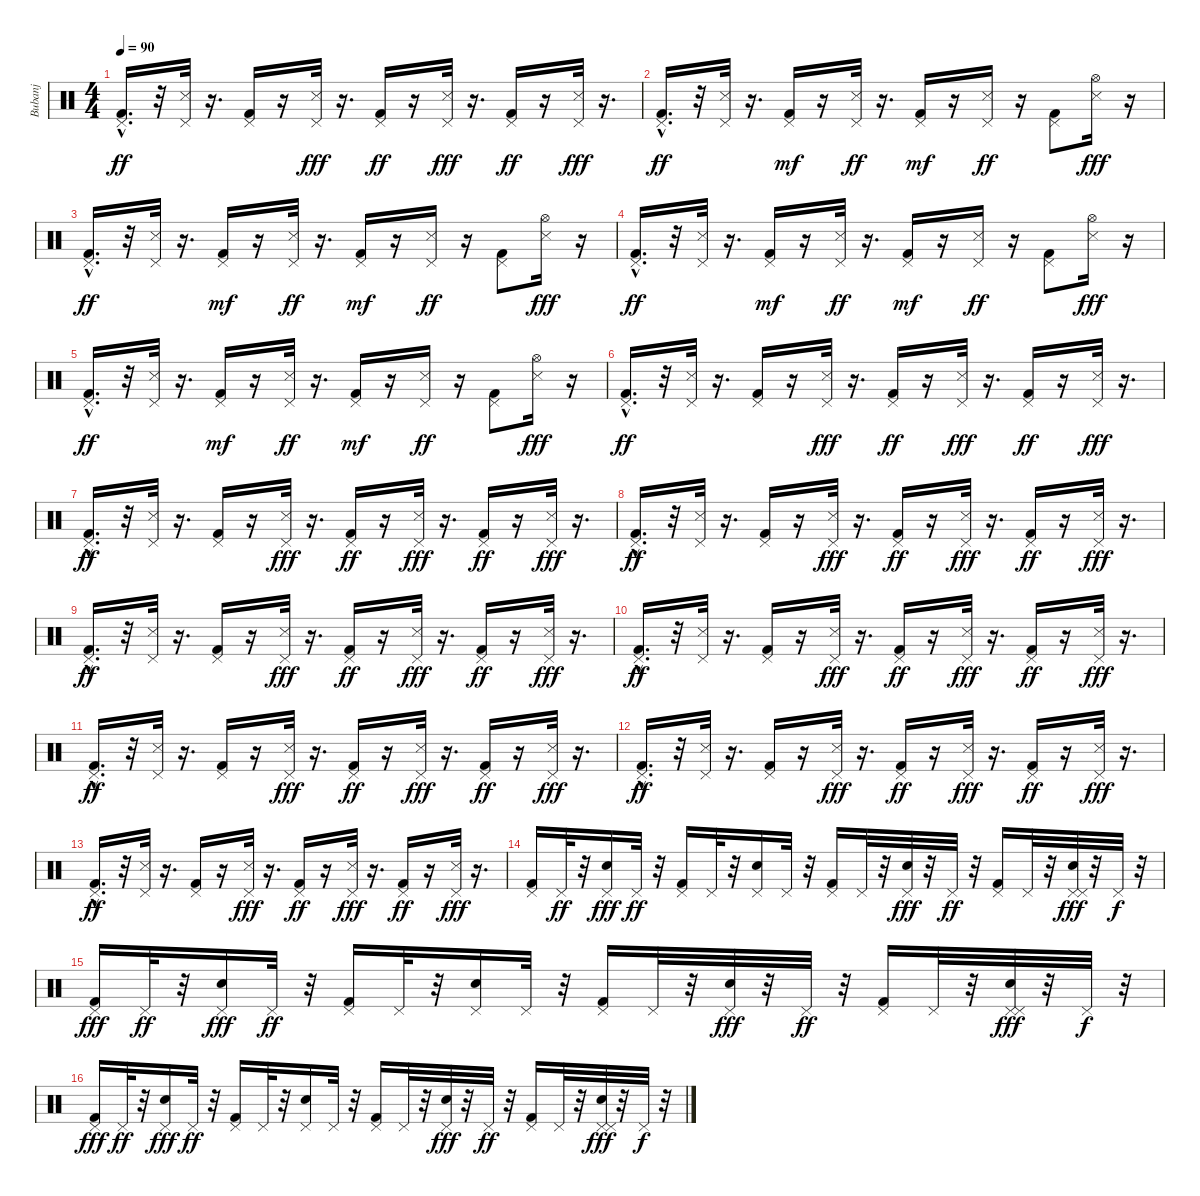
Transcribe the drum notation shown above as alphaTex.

\track ("Bubanj" "Bubanj") {instrument percussion}
\staff {score}
\articulation defaults
\ts (4 4)
\tempo 90
\clef neutral
\ks c
("Kick (hit) 2"{hac} "Pedal Hi-Hat (hit)").16{d dy ff} r.32 ("Pedal Hi-Hat (hit)" "Snare (side stick) 3").32 r.16{d} ("Pedal Hi-Hat (hit)" "Kick (hit) 2").16 r.16 ("Snare (side stick) 3" "Pedal Hi-Hat (hit)").32{dy fff} r.16{d} ("Kick (hit) 2" "Pedal Hi-Hat (hit)").16{dy ff} r.16 ("Snare (side stick) 3" "Pedal Hi-Hat (hit)").32{dy fff} r.16{d} ("Kick (hit) 2" "Pedal Hi-Hat (hit)").16{dy ff} r.16 ("Snare (side stick) 3" "Pedal Hi-Hat (hit)").32{dy fff} r.16{d} |
("Kick (hit) 2"{hac} "Pedal Hi-Hat (hit)").16{d dy ff} r.32 ("Snare (side stick) 3" "Pedal Hi-Hat (hit)").32 r.16{d} ("Kick (hit) 2" "Pedal Hi-Hat (hit)").16{dy mf} r.16 ("Snare (side stick) 3" "Pedal Hi-Hat (hit)").32{dy ff} r.16{d} ("Kick (hit) 2" "Pedal Hi-Hat (hit)").16{dy mf} r.16 ("Snare (side stick) 3" "Pedal Hi-Hat (hit)").16{dy ff} r.16 ("Kick (hit) 2" "Pedal Hi-Hat (hit)").8 ("Snare (side stick) 3" "Hi-Hat (open)").16{dy fff} r.16 |
("Kick (hit) 2"{hac} "Pedal Hi-Hat (hit)").16{d dy ff} r.32 ("Snare (side stick) 3" "Pedal Hi-Hat (hit)").32 r.16{d} ("Kick (hit) 2" "Pedal Hi-Hat (hit)").16{dy mf} r.16 ("Snare (side stick) 3" "Pedal Hi-Hat (hit)").32{dy ff} r.16{d} ("Kick (hit) 2" "Pedal Hi-Hat (hit)").16{dy mf} r.16 ("Snare (side stick) 3" "Pedal Hi-Hat (hit)").16{dy ff} r.16 ("Kick (hit) 2" "Pedal Hi-Hat (hit)").8 ("Snare (side stick) 3" "Hi-Hat (open)").16{dy fff} r.16 |
("Kick (hit) 2"{hac} "Pedal Hi-Hat (hit)").16{d dy ff} r.32 ("Snare (side stick) 3" "Pedal Hi-Hat (hit)").32 r.16{d} ("Kick (hit) 2" "Pedal Hi-Hat (hit)").16{dy mf} r.16 ("Snare (side stick) 3" "Pedal Hi-Hat (hit)").32{dy ff} r.16{d} ("Kick (hit) 2" "Pedal Hi-Hat (hit)").16{dy mf} r.16 ("Snare (side stick) 3" "Pedal Hi-Hat (hit)").16{dy ff} r.16 ("Kick (hit) 2" "Pedal Hi-Hat (hit)").8 ("Snare (side stick) 3" "Hi-Hat (open)").16{dy fff} r.16 |
("Kick (hit) 2"{hac} "Pedal Hi-Hat (hit)").16{d dy ff} r.32 ("Snare (side stick) 3" "Pedal Hi-Hat (hit)").32 r.16{d} ("Kick (hit) 2" "Pedal Hi-Hat (hit)").16{dy mf} r.16 ("Snare (side stick) 3" "Pedal Hi-Hat (hit)").32{dy ff} r.16{d} ("Kick (hit) 2" "Pedal Hi-Hat (hit)").16{dy mf} r.16 ("Snare (side stick) 3" "Pedal Hi-Hat (hit)").16{dy ff} r.16 ("Kick (hit) 2" "Pedal Hi-Hat (hit)").8 ("Snare (side stick) 3" "Hi-Hat (open)").16{dy fff} r.16 |
("Kick (hit) 2"{hac} "Pedal Hi-Hat (hit)").16{d dy ff} r.32 ("Pedal Hi-Hat (hit)" "Snare (side stick) 3").32 r.16{d} ("Pedal Hi-Hat (hit)" "Kick (hit) 2").16 r.16 ("Snare (side stick) 3" "Pedal Hi-Hat (hit)").32{dy fff} r.16{d} ("Kick (hit) 2" "Pedal Hi-Hat (hit)").16{dy ff} r.16 ("Snare (side stick) 3" "Pedal Hi-Hat (hit)").32{dy fff} r.16{d} ("Kick (hit) 2" "Pedal Hi-Hat (hit)").16{dy ff} r.16 ("Snare (side stick) 3" "Pedal Hi-Hat (hit)").32{dy fff} r.16{d} |
("Kick (hit) 2"{hac} "Pedal Hi-Hat (hit)").16{d dy ff} r.32 ("Pedal Hi-Hat (hit)" "Snare (side stick) 3").32 r.16{d} ("Pedal Hi-Hat (hit)" "Kick (hit) 2").16 r.16 ("Snare (side stick) 3" "Pedal Hi-Hat (hit)").32{dy fff} r.16{d} ("Kick (hit) 2" "Pedal Hi-Hat (hit)").16{dy ff} r.16 ("Snare (side stick) 3" "Pedal Hi-Hat (hit)").32{dy fff} r.16{d} ("Kick (hit) 2" "Pedal Hi-Hat (hit)").16{dy ff} r.16 ("Snare (side stick) 3" "Pedal Hi-Hat (hit)").32{dy fff} r.16{d} |
("Kick (hit) 2"{hac} "Pedal Hi-Hat (hit)").16{d dy ff} r.32 ("Pedal Hi-Hat (hit)" "Snare (side stick) 3").32 r.16{d} ("Pedal Hi-Hat (hit)" "Kick (hit) 2").16 r.16 ("Snare (side stick) 3" "Pedal Hi-Hat (hit)").32{dy fff} r.16{d} ("Kick (hit) 2" "Pedal Hi-Hat (hit)").16{dy ff} r.16 ("Snare (side stick) 3" "Pedal Hi-Hat (hit)").32{dy fff} r.16{d} ("Kick (hit) 2" "Pedal Hi-Hat (hit)").16{dy ff} r.16 ("Snare (side stick) 3" "Pedal Hi-Hat (hit)").32{dy fff} r.16{d} |
("Kick (hit) 2"{hac} "Pedal Hi-Hat (hit)").16{d dy ff} r.32 ("Pedal Hi-Hat (hit)" "Snare (side stick) 3").32 r.16{d} ("Pedal Hi-Hat (hit)" "Kick (hit) 2").16 r.16 ("Snare (side stick) 3" "Pedal Hi-Hat (hit)").32{dy fff} r.16{d} ("Kick (hit) 2" "Pedal Hi-Hat (hit)").16{dy ff} r.16 ("Snare (side stick) 3" "Pedal Hi-Hat (hit)").32{dy fff} r.16{d} ("Kick (hit) 2" "Pedal Hi-Hat (hit)").16{dy ff} r.16 ("Snare (side stick) 3" "Pedal Hi-Hat (hit)").32{dy fff} r.16{d} |
("Kick (hit) 2"{hac} "Pedal Hi-Hat (hit)").16{d dy ff} r.32 ("Pedal Hi-Hat (hit)" "Snare (side stick) 3").32 r.16{d} ("Pedal Hi-Hat (hit)" "Kick (hit) 2").16 r.16 ("Snare (side stick) 3" "Pedal Hi-Hat (hit)").32{dy fff} r.16{d} ("Kick (hit) 2" "Pedal Hi-Hat (hit)").16{dy ff} r.16 ("Snare (side stick) 3" "Pedal Hi-Hat (hit)").32{dy fff} r.16{d} ("Kick (hit) 2" "Pedal Hi-Hat (hit)").16{dy ff} r.16 ("Snare (side stick) 3" "Pedal Hi-Hat (hit)").32{dy fff} r.16{d} |
("Kick (hit) 2"{hac} "Pedal Hi-Hat (hit)").16{d dy ff} r.32 ("Pedal Hi-Hat (hit)" "Snare (side stick) 3").32 r.16{d} ("Pedal Hi-Hat (hit)" "Kick (hit) 2").16 r.16 ("Snare (side stick) 3" "Pedal Hi-Hat (hit)").32{dy fff} r.16{d} ("Kick (hit) 2" "Pedal Hi-Hat (hit)").16{dy ff} r.16 ("Snare (side stick) 3" "Pedal Hi-Hat (hit)").32{dy fff} r.16{d} ("Kick (hit) 2" "Pedal Hi-Hat (hit)").16{dy ff} r.16 ("Snare (side stick) 3" "Pedal Hi-Hat (hit)").32{dy fff} r.16{d} |
("Kick (hit) 2"{hac} "Pedal Hi-Hat (hit)").16{d dy ff} r.32 ("Pedal Hi-Hat (hit)" "Snare (side stick) 3").32 r.16{d} ("Pedal Hi-Hat (hit)" "Kick (hit) 2").16 r.16 ("Snare (side stick) 3" "Pedal Hi-Hat (hit)").32{dy fff} r.16{d} ("Kick (hit) 2" "Pedal Hi-Hat (hit)").16{dy ff} r.16 ("Snare (side stick) 3" "Pedal Hi-Hat (hit)").32{dy fff} r.16{d} ("Kick (hit) 2" "Pedal Hi-Hat (hit)").16{dy ff} r.16 ("Snare (side stick) 3" "Pedal Hi-Hat (hit)").32{dy fff} r.16{d} |
("Kick (hit) 2"{hac} "Pedal Hi-Hat (hit)").16{d dy ff} r.32 ("Pedal Hi-Hat (hit)" "Snare (side stick) 3").32 r.16{d} ("Pedal Hi-Hat (hit)" "Kick (hit) 2").16 r.16 ("Snare (side stick) 3" "Pedal Hi-Hat (hit)").32{dy fff} r.16{d} ("Kick (hit) 2" "Pedal Hi-Hat (hit)").16{dy ff} r.16 ("Snare (side stick) 3" "Pedal Hi-Hat (hit)").32{dy fff} r.16{d} ("Kick (hit) 2" "Pedal Hi-Hat (hit)").16{dy ff} r.16 ("Snare (side stick) 3" "Pedal Hi-Hat (hit)").32{dy fff} r.16{d} |
("Pedal Hi-Hat (hit)" "Kick (hit) 2").16 "Pedal Hi-Hat (hit)".32{dy ff} r.32 ("Pedal Hi-Hat (hit)" "Electric Snare (hit)").16{dy fff} "Pedal Hi-Hat (hit)".32{dy ff} r.32 ("Pedal Hi-Hat (hit)" "Kick (hit) 2").16 "Pedal Hi-Hat (hit)".32 r.32 ("Pedal Hi-Hat (hit)" "Electric Snare (hit)").16 "Pedal Hi-Hat (hit)".32 r.32 ("Pedal Hi-Hat (hit)" "Kick (hit) 2").16 "Pedal Hi-Hat (hit)".32 r.32 ("Pedal Hi-Hat (hit)" "Electric Snare (hit)").32{dy fff} r.32 "Pedal Hi-Hat (hit)".32{dy ff} r.32 ("Pedal Hi-Hat (hit)" "Kick (hit) 2").16 "Pedal Hi-Hat (hit)".32 r.32 ("Pedal Hi-Hat (hit)" "Pedal Hi-Hat (hit)" "Electric Snare (hit)").32{dy fff} r.32 "Pedal Hi-Hat (hit)".32{dy f} r.32 |
("Pedal Hi-Hat (hit)" "Kick (hit) 2").16{dy fff} "Pedal Hi-Hat (hit)".32{dy ff} r.32 ("Pedal Hi-Hat (hit)" "Electric Snare (hit)").16{dy fff} "Pedal Hi-Hat (hit)".32{dy ff} r.32 ("Pedal Hi-Hat (hit)" "Kick (hit) 2").16 "Pedal Hi-Hat (hit)".32 r.32 ("Pedal Hi-Hat (hit)" "Electric Snare (hit)").16 "Pedal Hi-Hat (hit)".32 r.32 ("Pedal Hi-Hat (hit)" "Kick (hit) 2").16 "Pedal Hi-Hat (hit)".32 r.32 ("Pedal Hi-Hat (hit)" "Electric Snare (hit)").32{dy fff} r.32 "Pedal Hi-Hat (hit)".32{dy ff} r.32 ("Pedal Hi-Hat (hit)" "Kick (hit) 2").16 "Pedal Hi-Hat (hit)".32 r.32 ("Pedal Hi-Hat (hit)" "Pedal Hi-Hat (hit)" "Electric Snare (hit)").32{dy fff} r.32 "Pedal Hi-Hat (hit)".32{dy f} r.32 |
("Pedal Hi-Hat (hit)" "Kick (hit) 2").16{dy fff} "Pedal Hi-Hat (hit)".32{dy ff} r.32 ("Pedal Hi-Hat (hit)" "Electric Snare (hit)").16{dy fff} "Pedal Hi-Hat (hit)".32{dy ff} r.32 ("Pedal Hi-Hat (hit)" "Kick (hit) 2").16 "Pedal Hi-Hat (hit)".32 r.32 ("Pedal Hi-Hat (hit)" "Electric Snare (hit)").16 "Pedal Hi-Hat (hit)".32 r.32 ("Pedal Hi-Hat (hit)" "Kick (hit) 2").16 "Pedal Hi-Hat (hit)".32 r.32 ("Pedal Hi-Hat (hit)" "Electric Snare (hit)").32{dy fff} r.32 "Pedal Hi-Hat (hit)".32{dy ff} r.32 ("Pedal Hi-Hat (hit)" "Kick (hit) 2").16 "Pedal Hi-Hat (hit)".32 r.32 ("Pedal Hi-Hat (hit)" "Pedal Hi-Hat (hit)" "Electric Snare (hit)").32{dy fff} r.32 "Pedal Hi-Hat (hit)".32{dy f} r.32
